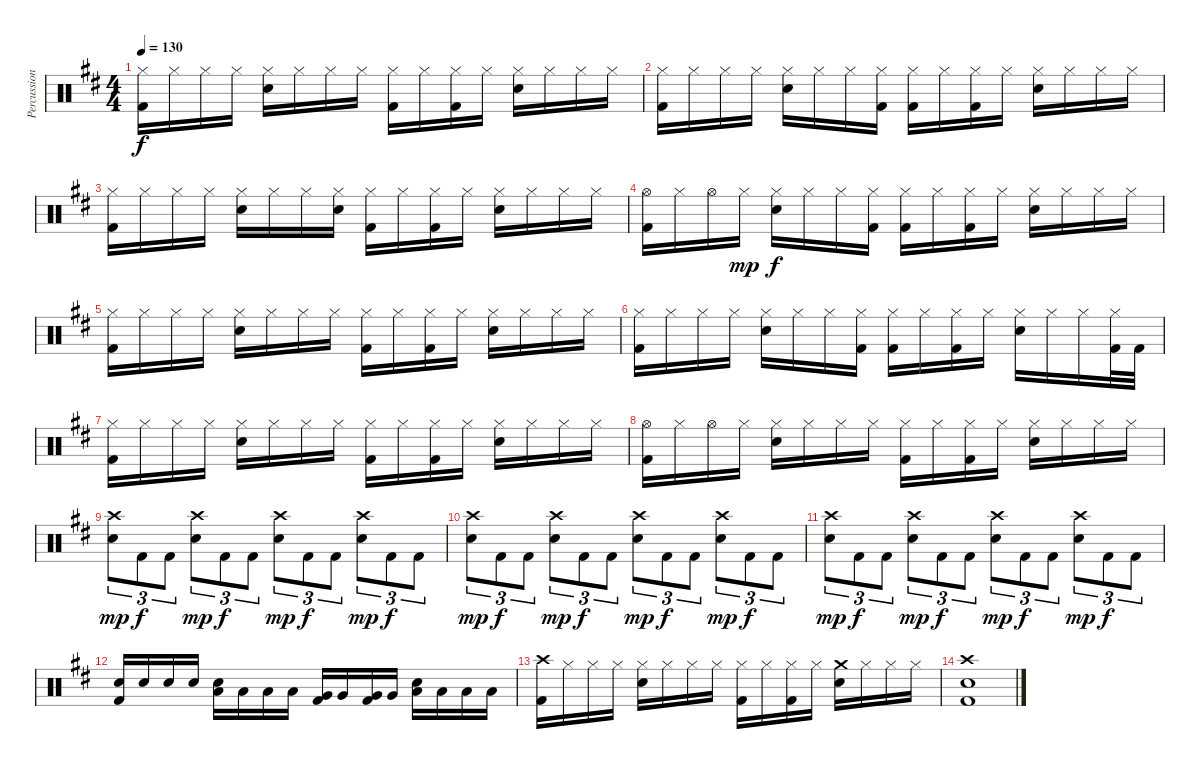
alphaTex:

\track ("Percussion" "Percussion") {instrument percussion}
\staff {score}
\articulation defaults
\ts (4 4)
\tempo 130
\clef neutral
\ks d
("Hi-Hat (closed)" "Kick (hit) 2").16{dy f} "Hi-Hat (closed)".16 "Hi-Hat (closed)".16 "Hi-Hat (closed)".16 ("Hi-Hat (closed)" "Snare (hit) 2").16 "Hi-Hat (closed)".16 "Hi-Hat (closed)".16 "Hi-Hat (closed)".16 ("Hi-Hat (closed)" "Kick (hit) 2").16 "Hi-Hat (closed)".16 ("Hi-Hat (closed)" "Kick (hit) 2").16 "Hi-Hat (closed)".16 ("Hi-Hat (closed)" "Snare (hit) 2").16 "Hi-Hat (closed)".16 "Hi-Hat (closed)".16 "Hi-Hat (closed)".16 |
("Hi-Hat (closed)" "Kick (hit) 2").16 "Hi-Hat (closed)".16 "Hi-Hat (closed)".16 "Hi-Hat (closed)".16 ("Hi-Hat (closed)" "Snare (hit) 2").16 "Hi-Hat (closed)".16 "Hi-Hat (closed)".16 ("Hi-Hat (closed)" "Kick (hit) 2").16 ("Hi-Hat (closed)" "Kick (hit) 2").16 "Hi-Hat (closed)".16 ("Hi-Hat (closed)" "Kick (hit) 2").16 "Hi-Hat (closed)".16 ("Hi-Hat (closed)" "Snare (hit) 2").16 "Hi-Hat (closed)".16 "Hi-Hat (closed)".16 "Hi-Hat (closed)".16 |
("Hi-Hat (closed)" "Kick (hit) 2").16 "Hi-Hat (closed)".16 "Hi-Hat (closed)".16 "Hi-Hat (closed)".16 ("Hi-Hat (closed)" "Snare (hit) 2").16 "Hi-Hat (closed)".16 "Hi-Hat (closed)".16 ("Hi-Hat (closed)" "Snare (hit) 2").16 ("Hi-Hat (closed)" "Kick (hit) 2").16 "Hi-Hat (closed)".16 ("Hi-Hat (closed)" "Kick (hit) 2").16 "Hi-Hat (closed)".16 ("Hi-Hat (closed)" "Snare (hit) 2").16 "Hi-Hat (closed)".16 "Hi-Hat (closed)".16 "Hi-Hat (closed)".16 |
("Hi-Hat (open)" "Kick (hit) 2").16 "Hi-Hat (closed)".16 "Hi-Hat (open)".16 "Hi-Hat (closed)".16{dy mp} ("Hi-Hat (closed)" "Snare (hit) 2").16{dy f} "Hi-Hat (closed)".16 "Hi-Hat (closed)".16 ("Hi-Hat (closed)" "Kick (hit) 2").16 ("Hi-Hat (closed)" "Kick (hit) 2").16 "Hi-Hat (closed)".16 ("Hi-Hat (closed)" "Kick (hit) 2").16 "Hi-Hat (closed)".16 ("Hi-Hat (closed)" "Snare (hit) 2").16 "Hi-Hat (closed)".16 "Hi-Hat (closed)".16 "Hi-Hat (closed)".16 |
("Hi-Hat (closed)" "Kick (hit) 2").16 "Hi-Hat (closed)".16 "Hi-Hat (closed)".16 "Hi-Hat (closed)".16 ("Hi-Hat (closed)" "Snare (hit) 2").16 "Hi-Hat (closed)".16 "Hi-Hat (closed)".16 "Hi-Hat (closed)".16 ("Hi-Hat (closed)" "Kick (hit) 2").16 "Hi-Hat (closed)".16 ("Hi-Hat (closed)" "Kick (hit) 2").16 "Hi-Hat (closed)".16 ("Hi-Hat (closed)" "Snare (hit) 2").16 "Hi-Hat (closed)".16 "Hi-Hat (closed)".16 "Hi-Hat (closed)".16 |
("Hi-Hat (closed)" "Kick (hit) 2").16 "Hi-Hat (closed)".16 "Hi-Hat (closed)".16 "Hi-Hat (closed)".16 ("Hi-Hat (closed)" "Snare (hit) 2").16 "Hi-Hat (closed)".16 "Hi-Hat (closed)".16 ("Hi-Hat (closed)" "Kick (hit) 2").16 ("Hi-Hat (closed)" "Kick (hit) 2").16 "Hi-Hat (closed)".16 ("Hi-Hat (closed)" "Kick (hit) 2").16 "Hi-Hat (closed)".16 ("Hi-Hat (closed)" "Snare (hit) 2").16 "Hi-Hat (closed)".16 "Hi-Hat (closed)".16 ("Hi-Hat (closed)" "Kick (hit) 2").32 "Kick (hit) 2".32 |
("Hi-Hat (closed)" "Kick (hit) 2").16 "Hi-Hat (closed)".16 "Hi-Hat (closed)".16 "Hi-Hat (closed)".16 ("Hi-Hat (closed)" "Snare (hit) 2").16 "Hi-Hat (closed)".16 "Hi-Hat (closed)".16 "Hi-Hat (closed)".16 ("Hi-Hat (closed)" "Kick (hit) 2").16 "Hi-Hat (closed)".16 ("Hi-Hat (closed)" "Kick (hit) 2").16 "Hi-Hat (closed)".16 ("Hi-Hat (closed)" "Snare (hit) 2").16 "Hi-Hat (closed)".16 "Hi-Hat (closed)".16 "Hi-Hat (closed)".16 |
("Hi-Hat (open)" "Kick (hit) 2").16 "Hi-Hat (closed)".16 "Hi-Hat (open)".16 "Hi-Hat (closed)".16 ("Hi-Hat (closed)" "Snare (hit) 2").16 "Hi-Hat (closed)".16 "Hi-Hat (closed)".16 "Hi-Hat (closed)".16 ("Hi-Hat (closed)" "Kick (hit) 2").16 "Hi-Hat (closed)".16 ("Hi-Hat (closed)" "Kick (hit) 2").16 "Hi-Hat (closed)".16 ("Hi-Hat (closed)" "Snare (hit) 2").16 "Hi-Hat (closed)".16 "Hi-Hat (closed)".16 "Hi-Hat (closed)".16 |
("Crash high (hit)" "Snare (hit) 2").8{tu (3 2) dy mp} "Kick (hit) 2".8{tu (3 2) dy f} "Kick (hit) 2".8{tu (3 2)} ("Crash high (hit)" "Snare (hit) 2").8{tu (3 2) dy mp} "Kick (hit) 2".8{tu (3 2) dy f} "Kick (hit) 2".8{tu (3 2)} ("Crash high (hit)" "Snare (hit) 2").8{tu (3 2) dy mp} "Kick (hit) 2".8{tu (3 2) dy f} "Kick (hit) 2".8{tu (3 2)} ("Crash high (hit)" "Snare (hit) 2").8{tu (3 2) dy mp} "Kick (hit) 2".8{tu (3 2) dy f} "Kick (hit) 2".8{tu (3 2)} |
("Crash high (hit)" "Snare (hit) 2").8{tu (3 2) dy mp} "Kick (hit) 2".8{tu (3 2) dy f} "Kick (hit) 2".8{tu (3 2)} ("Crash high (hit)" "Snare (hit) 2").8{tu (3 2) dy mp} "Kick (hit) 2".8{tu (3 2) dy f} "Kick (hit) 2".8{tu (3 2)} ("Crash high (hit)" "Snare (hit) 2").8{tu (3 2) dy mp} "Kick (hit) 2".8{tu (3 2) dy f} "Kick (hit) 2".8{tu (3 2)} ("Crash high (hit)" "Snare (hit) 2").8{tu (3 2) dy mp} "Kick (hit) 2".8{tu (3 2) dy f} "Kick (hit) 2".8{tu (3 2)} |
("Crash high (hit)" "Snare (hit) 2").8{tu (3 2) dy mp} "Kick (hit) 2".8{tu (3 2) dy f} "Kick (hit) 2".8{tu (3 2)} ("Crash high (hit)" "Snare (hit) 2").8{tu (3 2) dy mp} "Kick (hit) 2".8{tu (3 2) dy f} "Kick (hit) 2".8{tu (3 2)} ("Crash high (hit)" "Snare (hit) 2").8{tu (3 2) dy mp} "Kick (hit) 2".8{tu (3 2) dy f} "Kick (hit) 2".8{tu (3 2)} ("Crash high (hit)" "Snare (hit) 2").8{tu (3 2) dy mp} "Kick (hit) 2".8{tu (3 2) dy f} "Kick (hit) 2".8{tu (3 2)} |
("Snare (hit) 2" "Kick (hit) 2").16 "Snare (hit) 2".16 "Snare (hit) 2".16 "Snare (hit) 2".16 ("Low Tom (hit)" "Snare (hit) 2").16 "Low Tom (hit)".16 "Low Tom (hit)".16 "Low Tom (hit)".16 ("Very Low Tom (hit)" "Kick (hit) 2").16 "Very Low Tom (hit)".16 ("Very Low Tom (hit)" "Kick (hit) 2").16 "Very Low Tom (hit)".16 ("Low Floor Tom (hit)" "Snare (hit) 2").16 "Low Floor Tom (hit)".16 "Low Floor Tom (hit)".16 "Low Floor Tom (hit)".16 |
("Crash high (hit)" "Kick (hit) 2").16 "Hi-Hat (closed)".16 "Hi-Hat (closed)".16 "Hi-Hat (closed)".16 ("Hi-Hat (closed)" "Snare (hit) 2").16 "Hi-Hat (closed)".16 "Hi-Hat (closed)".16 "Hi-Hat (closed)".16 ("Hi-Hat (closed)" "Kick (hit) 2").16 "Hi-Hat (closed)".16 ("Hi-Hat (closed)" "Kick (hit) 2").16 "Hi-Hat (closed)".16 ("Crash medium (hit)" "Snare (hit) 2").16 "Hi-Hat (closed)".16 "Hi-Hat (closed)".16 "Hi-Hat (closed)".16 |
("Kick (hit) 2" "Snare (hit) 2" "Crash high (hit)").1
